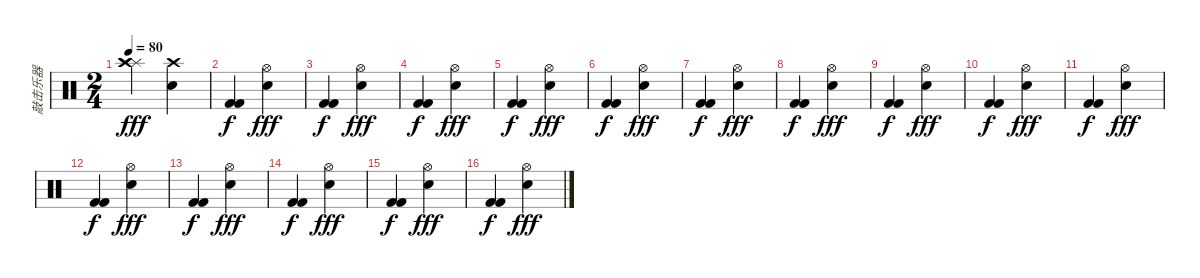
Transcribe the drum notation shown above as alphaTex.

\track ("敲击乐器" "敲击乐器") {instrument percussion}
\staff {score}
\articulation defaults
\ts (2 4)
\tempo 80
\clef neutral
\ks c
("Splash (hit)" "Crash high (hit)" "Crash high (hit)").4{dy fff} ("Crash high (hit)" "Snare (hit) 2").4 |
("Kick (hit) 2" "Kick (hit) 2").4{dy f} ("Hi-Hat (open)" "Snare (hit) 2").4{dy fff} |
("Kick (hit) 2" "Kick (hit) 2").4{dy f} ("Hi-Hat (open)" "Snare (hit) 2").4{dy fff} |
("Kick (hit) 2" "Kick (hit) 2").4{dy f} ("Hi-Hat (open)" "Snare (hit) 2").4{dy fff} |
("Kick (hit) 2" "Kick (hit) 2").4{dy f} ("Hi-Hat (open)" "Snare (hit) 2").4{dy fff} |
("Kick (hit) 2" "Kick (hit) 2").4{dy f} ("Hi-Hat (open)" "Snare (hit) 2").4{dy fff} |
("Kick (hit) 2" "Kick (hit) 2").4{dy f} ("Hi-Hat (open)" "Snare (hit) 2").4{dy fff} |
("Kick (hit) 2" "Kick (hit) 2").4{dy f} ("Hi-Hat (open)" "Snare (hit) 2").4{dy fff} |
("Kick (hit) 2" "Kick (hit) 2").4{dy f} ("Hi-Hat (open)" "Snare (hit) 2").4{dy fff} |
("Kick (hit) 2" "Kick (hit) 2").4{dy f} ("Hi-Hat (open)" "Snare (hit) 2").4{dy fff} |
("Kick (hit) 2" "Kick (hit) 2").4{dy f} ("Hi-Hat (open)" "Snare (hit) 2").4{dy fff} |
("Kick (hit) 2" "Kick (hit) 2").4{dy f} ("Hi-Hat (open)" "Snare (hit) 2").4{dy fff} |
("Kick (hit) 2" "Kick (hit) 2").4{dy f} ("Hi-Hat (open)" "Snare (hit) 2").4{dy fff} |
("Kick (hit) 2" "Kick (hit) 2").4{dy f} ("Hi-Hat (open)" "Snare (hit) 2").4{dy fff} |
("Kick (hit) 2" "Kick (hit) 2").4{dy f} ("Hi-Hat (open)" "Snare (hit) 2").4{dy fff} |
("Kick (hit) 2" "Kick (hit) 2").4{dy f} ("Hi-Hat (open)" "Snare (hit) 2").4{dy fff}
